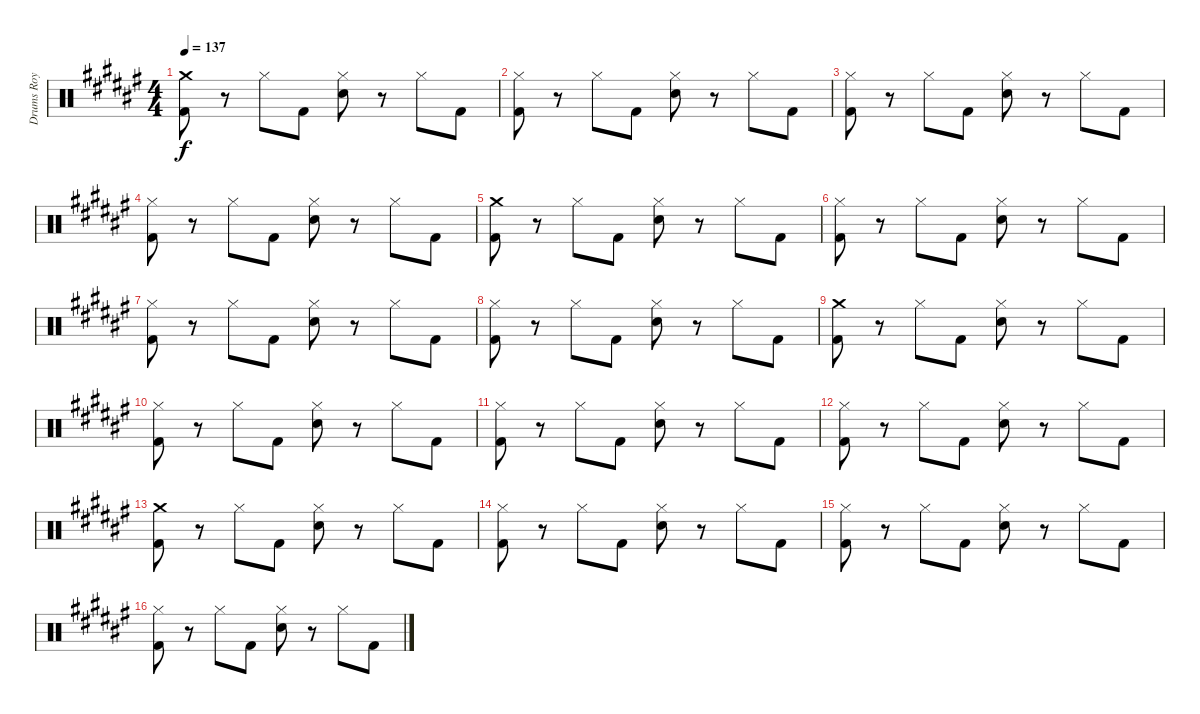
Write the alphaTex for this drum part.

\track ("Drums Roy mayorga" "Drums Roy ") {instrument percussion}
\staff {score}
\articulation defaults
\ts (4 4)
\tempo 137
\clef neutral
\ks d#minor
("Crash medium (hit)" "Kick (hit) 2").8{dy f} r.8 "Hi-Hat (closed)".8 "Kick (hit) 2".8 ("Hi-Hat (closed)" "Electric Snare (hit)").8 r.8 "Hi-Hat (closed)".8 "Kick (hit) 2".8 |
("Hi-Hat (closed)" "Kick (hit) 2").8 r.8 "Hi-Hat (closed)".8 "Kick (hit) 2".8 ("Hi-Hat (closed)" "Electric Snare (hit)").8 r.8 "Hi-Hat (closed)".8 "Kick (hit) 2".8 |
("Hi-Hat (closed)" "Kick (hit) 2").8 r.8 "Hi-Hat (closed)".8 "Kick (hit) 2".8 ("Hi-Hat (closed)" "Electric Snare (hit)").8 r.8 "Hi-Hat (closed)".8 "Kick (hit) 2".8 |
("Hi-Hat (closed)" "Kick (hit) 2").8 r.8 "Hi-Hat (closed)".8 "Kick (hit) 2".8 ("Hi-Hat (closed)" "Electric Snare (hit)").8 r.8 "Hi-Hat (closed)".8 "Kick (hit) 2".8 |
("Crash medium (hit)" "Kick (hit) 2").8 r.8 "Hi-Hat (closed)".8 "Kick (hit) 2".8 ("Hi-Hat (closed)" "Electric Snare (hit)").8 r.8 "Hi-Hat (closed)".8 "Kick (hit) 2".8 |
("Hi-Hat (closed)" "Kick (hit) 2").8 r.8 "Hi-Hat (closed)".8 "Kick (hit) 2".8 ("Hi-Hat (closed)" "Electric Snare (hit)").8 r.8 "Hi-Hat (closed)".8 "Kick (hit) 2".8 |
("Hi-Hat (closed)" "Kick (hit) 2").8 r.8 "Hi-Hat (closed)".8 "Kick (hit) 2".8 ("Hi-Hat (closed)" "Electric Snare (hit)").8 r.8 "Hi-Hat (closed)".8 "Kick (hit) 2".8 |
("Hi-Hat (closed)" "Kick (hit) 2").8 r.8 "Hi-Hat (closed)".8 "Kick (hit) 2".8 ("Hi-Hat (closed)" "Electric Snare (hit)").8 r.8 "Hi-Hat (closed)".8 "Kick (hit) 2".8 |
("Crash medium (hit)" "Kick (hit) 2").8 r.8 "Hi-Hat (closed)".8 "Kick (hit) 2".8 ("Hi-Hat (closed)" "Electric Snare (hit)").8 r.8 "Hi-Hat (closed)".8 "Kick (hit) 2".8 |
("Hi-Hat (closed)" "Kick (hit) 2").8 r.8 "Hi-Hat (closed)".8 "Kick (hit) 2".8 ("Hi-Hat (closed)" "Electric Snare (hit)").8 r.8 "Hi-Hat (closed)".8 "Kick (hit) 2".8 |
("Hi-Hat (closed)" "Kick (hit) 2").8 r.8 "Hi-Hat (closed)".8 "Kick (hit) 2".8 ("Hi-Hat (closed)" "Electric Snare (hit)").8 r.8 "Hi-Hat (closed)".8 "Kick (hit) 2".8 |
("Hi-Hat (closed)" "Kick (hit) 2").8 r.8 "Hi-Hat (closed)".8 "Kick (hit) 2".8 ("Hi-Hat (closed)" "Electric Snare (hit)").8 r.8 "Hi-Hat (closed)".8 "Kick (hit) 2".8 |
("Crash medium (hit)" "Kick (hit) 2").8 r.8 "Hi-Hat (closed)".8 "Kick (hit) 2".8 ("Hi-Hat (closed)" "Electric Snare (hit)").8 r.8 "Hi-Hat (closed)".8 "Kick (hit) 2".8 |
("Hi-Hat (closed)" "Kick (hit) 2").8 r.8 "Hi-Hat (closed)".8 "Kick (hit) 2".8 ("Hi-Hat (closed)" "Electric Snare (hit)").8 r.8 "Hi-Hat (closed)".8 "Kick (hit) 2".8 |
("Hi-Hat (closed)" "Kick (hit) 2").8 r.8 "Hi-Hat (closed)".8 "Kick (hit) 2".8 ("Hi-Hat (closed)" "Electric Snare (hit)").8 r.8 "Hi-Hat (closed)".8 "Kick (hit) 2".8 |
("Hi-Hat (closed)" "Kick (hit) 2").8 r.8 "Hi-Hat (closed)".8 "Kick (hit) 2".8 ("Hi-Hat (closed)" "Electric Snare (hit)").8 r.8 "Hi-Hat (closed)".8 "Kick (hit) 2".8
